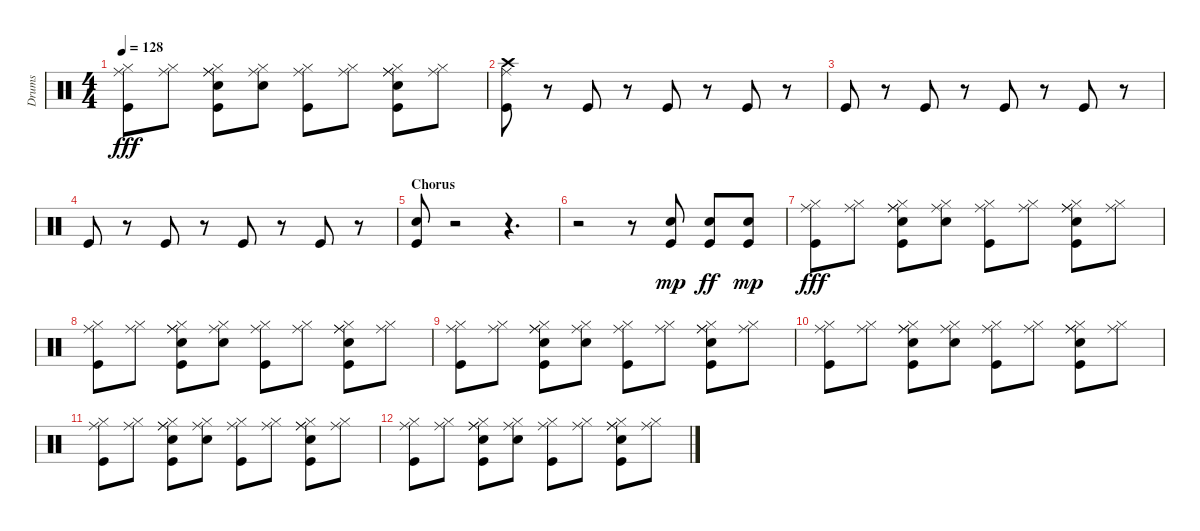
\track ("Drums               " "Drums     ") {instrument percussion}
\staff {score}
\articulation defaults
\ts (4 4)
\tempo 128
\clef neutral
\ks c
("Ride (middle)" "Hi-Hat (closed)" "Kick (hit)").8{dy fff} ("Ride (middle)" "Hi-Hat (closed)").8 ("Ride (middle)" "Hi-Hat (closed)" "Ride (middle)" "Electric Snare (hit)" "Kick (hit)").8 ("Ride (middle)" "Hi-Hat (closed)" "Electric Snare (hit)").8 ("Ride (middle)" "Hi-Hat (closed)" "Kick (hit)").8 ("Ride (middle)" "Hi-Hat (closed)").8 ("Ride (middle)" "Hi-Hat (closed)" "Ride (middle)" "Electric Snare (hit)" "Kick (hit)").8 ("Ride (middle)" "Hi-Hat (closed)").8 |
("Crash high (hit)" "Ride (middle)" "Kick (hit)").8 r.8 "Kick (hit)".8 r.8 "Kick (hit)".8 r.8 "Kick (hit)".8 r.8 |
"Kick (hit)".8 r.8 "Kick (hit)".8 r.8 "Kick (hit)".8 r.8 "Kick (hit)".8 r.8 |
"Kick (hit)".8 r.8 "Kick (hit)".8 r.8 "Kick (hit)".8 r.8 "Kick (hit)".8 r.8 |
\section ("" "Chorus")
("Electric Snare (hit)" "Kick (hit)").8 r.2 r.4{d} |
r.2 r.8 ("Electric Snare (hit)" "Kick (hit)").8{dy mp} ("Electric Snare (hit)" "Kick (hit)").8{dy ff} ("Electric Snare (hit)" "Kick (hit)").8{dy mp} |
("Ride (middle)" "Hi-Hat (closed)" "Kick (hit)").8{dy fff} ("Ride (middle)" "Hi-Hat (closed)").8 ("Ride (middle)" "Hi-Hat (closed)" "Ride (middle)" "Electric Snare (hit)" "Kick (hit)").8 ("Ride (middle)" "Hi-Hat (closed)" "Electric Snare (hit)").8 ("Ride (middle)" "Hi-Hat (closed)" "Kick (hit)").8 ("Ride (middle)" "Hi-Hat (closed)").8 ("Ride (middle)" "Hi-Hat (closed)" "Ride (middle)" "Electric Snare (hit)" "Kick (hit)").8 ("Ride (middle)" "Hi-Hat (closed)").8 |
("Ride (middle)" "Hi-Hat (closed)" "Kick (hit)").8 ("Ride (middle)" "Hi-Hat (closed)").8 ("Ride (middle)" "Hi-Hat (closed)" "Ride (middle)" "Electric Snare (hit)" "Kick (hit)").8 ("Ride (middle)" "Hi-Hat (closed)" "Electric Snare (hit)").8 ("Ride (middle)" "Hi-Hat (closed)" "Kick (hit)").8 ("Ride (middle)" "Hi-Hat (closed)").8 ("Ride (middle)" "Hi-Hat (closed)" "Ride (middle)" "Electric Snare (hit)" "Kick (hit)").8 ("Ride (middle)" "Hi-Hat (closed)").8 |
("Ride (middle)" "Hi-Hat (closed)" "Kick (hit)").8 ("Ride (middle)" "Hi-Hat (closed)").8 ("Ride (middle)" "Hi-Hat (closed)" "Ride (middle)" "Electric Snare (hit)" "Kick (hit)").8 ("Ride (middle)" "Hi-Hat (closed)" "Electric Snare (hit)").8 ("Ride (middle)" "Hi-Hat (closed)" "Kick (hit)").8 ("Ride (middle)" "Hi-Hat (closed)").8 ("Ride (middle)" "Hi-Hat (closed)" "Ride (middle)" "Electric Snare (hit)" "Kick (hit)").8 ("Ride (middle)" "Hi-Hat (closed)").8 |
("Ride (middle)" "Hi-Hat (closed)" "Kick (hit)").8 ("Ride (middle)" "Hi-Hat (closed)").8 ("Ride (middle)" "Hi-Hat (closed)" "Ride (middle)" "Electric Snare (hit)" "Kick (hit)").8 ("Ride (middle)" "Hi-Hat (closed)" "Electric Snare (hit)").8 ("Ride (middle)" "Hi-Hat (closed)" "Kick (hit)").8 ("Ride (middle)" "Hi-Hat (closed)").8 ("Ride (middle)" "Hi-Hat (closed)" "Ride (middle)" "Electric Snare (hit)" "Kick (hit)").8 ("Ride (middle)" "Hi-Hat (closed)").8 |
("Ride (middle)" "Hi-Hat (closed)" "Kick (hit)").8 ("Ride (middle)" "Hi-Hat (closed)").8 ("Ride (middle)" "Hi-Hat (closed)" "Ride (middle)" "Electric Snare (hit)" "Kick (hit)").8 ("Ride (middle)" "Hi-Hat (closed)" "Electric Snare (hit)").8 ("Ride (middle)" "Hi-Hat (closed)" "Kick (hit)").8 ("Ride (middle)" "Hi-Hat (closed)").8 ("Ride (middle)" "Hi-Hat (closed)" "Ride (middle)" "Electric Snare (hit)" "Kick (hit)").8 ("Ride (middle)" "Hi-Hat (closed)").8 |
("Ride (middle)" "Hi-Hat (closed)" "Kick (hit)").8 ("Ride (middle)" "Hi-Hat (closed)").8 ("Ride (middle)" "Hi-Hat (closed)" "Ride (middle)" "Electric Snare (hit)" "Kick (hit)").8 ("Ride (middle)" "Hi-Hat (closed)" "Electric Snare (hit)").8 ("Ride (middle)" "Hi-Hat (closed)" "Kick (hit)").8 ("Ride (middle)" "Hi-Hat (closed)").8 ("Ride (middle)" "Hi-Hat (closed)" "Ride (middle)" "Electric Snare (hit)" "Kick (hit)").8 ("Ride (middle)" "Hi-Hat (closed)").8
